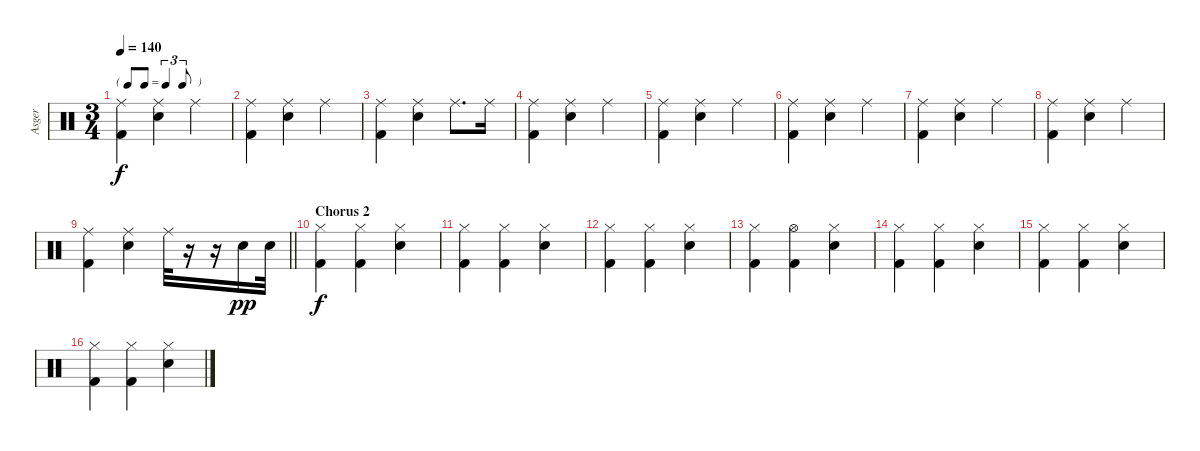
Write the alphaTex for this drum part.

\track ("Asger " "Asger ") {instrument percussion}
\staff {score}
\articulation defaults
\ts (3 4)
\tf triplet8th
\tempo 140
\clef neutral
\ks c
("Ride (middle)" "Kick (hit) 2").4{dy f} ("Ride (middle)" "Snare (hit) 2").4 "Ride (middle)".4 |
("Ride (middle)" "Kick (hit) 2").4 ("Ride (middle)" "Snare (hit) 2").4 "Ride (middle)".4 |
("Ride (middle)" "Kick (hit) 2").4 ("Ride (middle)" "Snare (hit) 2").4 "Ride (middle)".8{d} "Ride (middle)".16 |
("Ride (middle)" "Kick (hit) 2").4 ("Ride (middle)" "Snare (hit) 2").4 "Ride (middle)".4 |
("Ride (middle)" "Kick (hit) 2").4 ("Ride (middle)" "Snare (hit) 2").4 "Ride (middle)".4 |
("Ride (middle)" "Kick (hit) 2").4 ("Ride (middle)" "Snare (hit) 2").4 "Ride (middle)".4 |
("Ride (middle)" "Kick (hit) 2").4 ("Ride (middle)" "Snare (hit) 2").4 "Ride (middle)".4 |
("Ride (middle)" "Kick (hit) 2").4 ("Ride (middle)" "Snare (hit) 2").4 "Ride (middle)".4 |
\barLineRight lightlight
("Ride (middle)" "Kick (hit) 2").4 ("Ride (middle)" "Snare (hit) 2").4 "Ride (middle)".32 r.16 r.16 "Snare (hit) 2".16{dy pp} "Snare (hit) 2".32 |
\section ("" "Chorus 2")
("Hi-Hat (closed)" "Kick (hit) 2").4{dy f} ("Hi-Hat (closed)" "Kick (hit) 2").4 ("Hi-Hat (closed)" "Snare (hit) 2").4 |
("Hi-Hat (closed)" "Kick (hit) 2").4 ("Hi-Hat (closed)" "Kick (hit) 2").4 ("Hi-Hat (closed)" "Snare (hit) 2").4 |
("Hi-Hat (closed)" "Kick (hit) 2").4 ("Hi-Hat (closed)" "Kick (hit) 2").4 ("Hi-Hat (closed)" "Snare (hit) 2").4 |
("Hi-Hat (closed)" "Kick (hit) 2").4 ("Hi-Hat (open)" "Kick (hit) 2").4 ("Hi-Hat (closed)" "Snare (hit) 2").4 |
("Hi-Hat (closed)" "Kick (hit) 2").4 ("Hi-Hat (closed)" "Kick (hit) 2").4 ("Hi-Hat (closed)" "Snare (hit) 2").4 |
("Hi-Hat (closed)" "Kick (hit) 2").4 ("Hi-Hat (closed)" "Kick (hit) 2").4 ("Hi-Hat (closed)" "Snare (hit) 2").4 |
("Hi-Hat (closed)" "Kick (hit) 2").4 ("Hi-Hat (closed)" "Kick (hit) 2").4 ("Hi-Hat (closed)" "Snare (hit) 2").4
